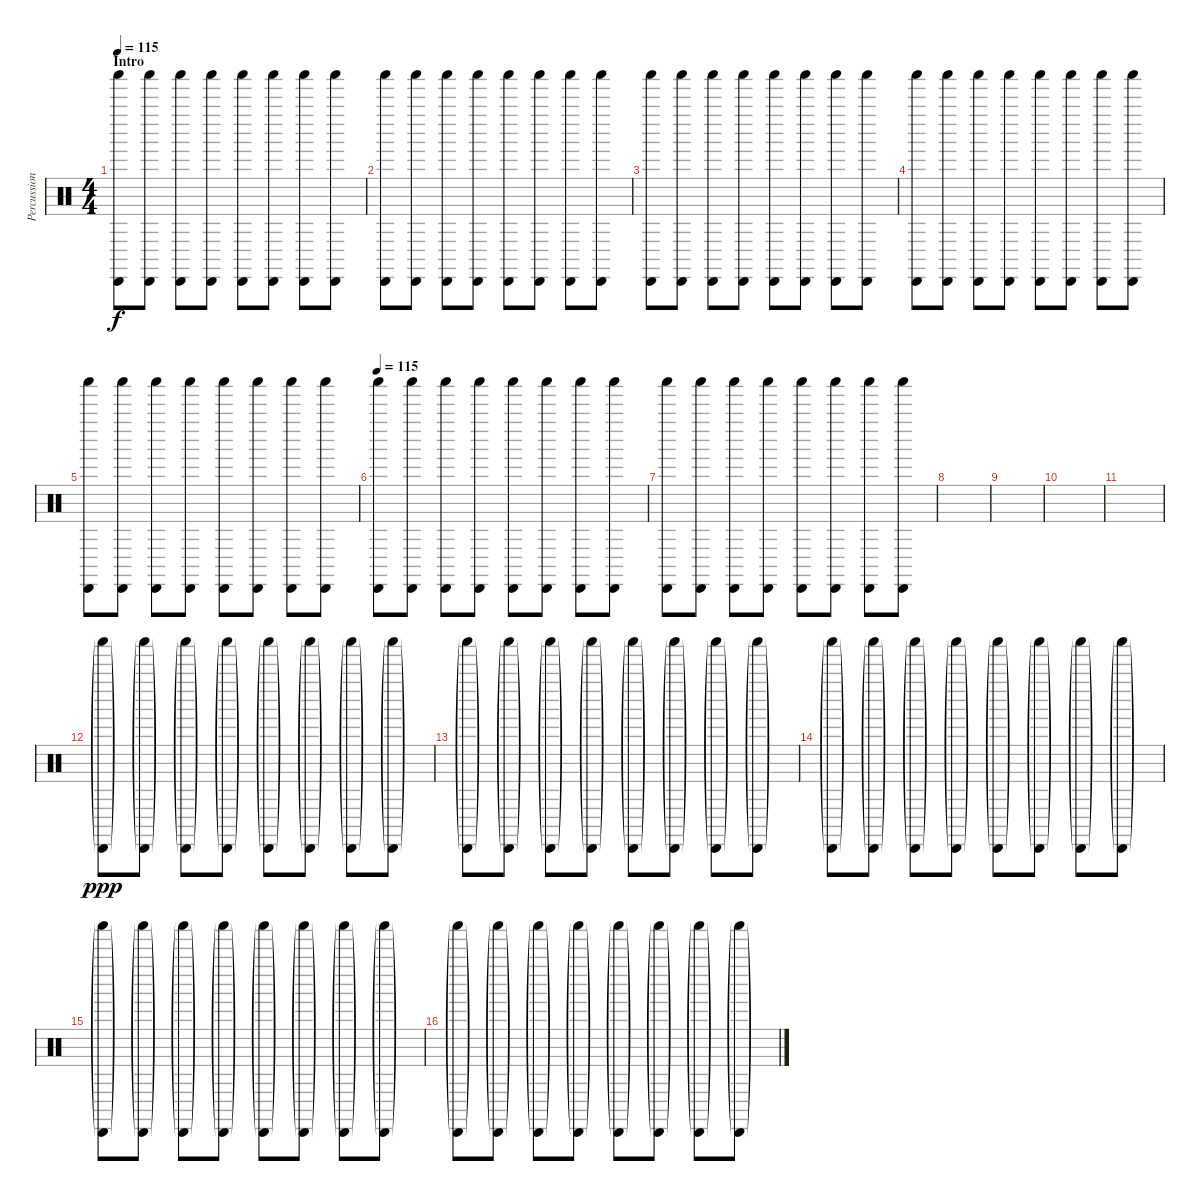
\track ("Percussion - Cabasa" "Percussion") {instrument percussion}
\staff {score}
\articulation defaults
\ts (4 4)
\section ("" "Intro")
\tempo 115
\tempo 109
\tempo 115
\clef neutral
\ks c
("Shaker (hit)" "Cabasa (hit)").8{dy f} ("Shaker (hit)" "Cabasa (hit)").8 ("Shaker (hit)" "Cabasa (hit)").8 ("Shaker (hit)" "Cabasa (hit)").8 ("Shaker (hit)" "Cabasa (hit)").8 ("Shaker (hit)" "Cabasa (hit)").8 ("Shaker (hit)" "Cabasa (hit)").8 ("Shaker (hit)" "Cabasa (hit)").8 |
("Shaker (hit)" "Cabasa (hit)").8 ("Shaker (hit)" "Cabasa (hit)").8 ("Shaker (hit)" "Cabasa (hit)").8 ("Shaker (hit)" "Cabasa (hit)").8 ("Shaker (hit)" "Cabasa (hit)").8 ("Shaker (hit)" "Cabasa (hit)").8 ("Shaker (hit)" "Cabasa (hit)").8 ("Shaker (hit)" "Cabasa (hit)").8 |
("Shaker (hit)" "Cabasa (hit)").8 ("Shaker (hit)" "Cabasa (hit)").8 ("Shaker (hit)" "Cabasa (hit)").8 ("Shaker (hit)" "Cabasa (hit)").8 ("Shaker (hit)" "Cabasa (hit)").8 ("Shaker (hit)" "Cabasa (hit)").8 ("Shaker (hit)" "Cabasa (hit)").8 ("Shaker (hit)" "Cabasa (hit)").8 |
("Shaker (hit)" "Cabasa (hit)").8 ("Shaker (hit)" "Cabasa (hit)").8 ("Shaker (hit)" "Cabasa (hit)").8 ("Shaker (hit)" "Cabasa (hit)").8 ("Shaker (hit)" "Cabasa (hit)").8 ("Shaker (hit)" "Cabasa (hit)").8 ("Shaker (hit)" "Cabasa (hit)").8 ("Shaker (hit)" "Cabasa (hit)").8 |
("Shaker (hit)" "Cabasa (hit)").8 ("Shaker (hit)" "Cabasa (hit)").8 ("Shaker (hit)" "Cabasa (hit)").8 ("Shaker (hit)" "Cabasa (hit)").8 ("Shaker (hit)" "Cabasa (hit)").8 ("Shaker (hit)" "Cabasa (hit)").8 ("Shaker (hit)" "Cabasa (hit)").8 ("Shaker (hit)" "Cabasa (hit)").8 |
\tempo 115
("Shaker (hit)" "Cabasa (hit)").8 ("Shaker (hit)" "Cabasa (hit)").8 ("Shaker (hit)" "Cabasa (hit)").8 ("Shaker (hit)" "Cabasa (hit)").8 ("Shaker (hit)" "Cabasa (hit)").8 ("Shaker (hit)" "Cabasa (hit)").8 ("Shaker (hit)" "Cabasa (hit)").8 ("Shaker (hit)" "Cabasa (hit)").8 |
("Shaker (hit)" "Cabasa (hit)").8{volume 0} ("Shaker (hit)" "Cabasa (hit)").8 ("Shaker (hit)" "Cabasa (hit)").8 ("Shaker (hit)" "Cabasa (hit)").8 ("Shaker (hit)" "Cabasa (hit)").8 ("Shaker (hit)" "Cabasa (hit)").8 ("Shaker (hit)" "Cabasa (hit)").8 ("Shaker (hit)" "Cabasa (hit)").8 |
|
|
|
|
("Shaker (hit)"{g} "Cabasa (hit)"{g}).8{dy ppp} ("Shaker (hit)"{g} "Cabasa (hit)"{g}).8 ("Shaker (hit)"{g} "Cabasa (hit)"{g}).8 ("Shaker (hit)"{g} "Cabasa (hit)"{g}).8 ("Shaker (hit)"{g} "Cabasa (hit)"{g}).8 ("Shaker (hit)"{g} "Cabasa (hit)"{g}).8 ("Shaker (hit)"{g} "Cabasa (hit)"{g}).8 ("Shaker (hit)"{g} "Cabasa (hit)"{g}).8 |
("Shaker (hit)"{g} "Cabasa (hit)"{g}).8 ("Shaker (hit)"{g} "Cabasa (hit)"{g}).8 ("Shaker (hit)"{g} "Cabasa (hit)"{g}).8 ("Shaker (hit)"{g} "Cabasa (hit)"{g}).8 ("Shaker (hit)"{g} "Cabasa (hit)"{g}).8 ("Shaker (hit)"{g} "Cabasa (hit)"{g}).8 ("Shaker (hit)"{g} "Cabasa (hit)"{g}).8 ("Shaker (hit)"{g} "Cabasa (hit)"{g}).8 |
("Shaker (hit)"{g} "Cabasa (hit)"{g}).8 ("Shaker (hit)"{g} "Cabasa (hit)"{g}).8 ("Shaker (hit)"{g} "Cabasa (hit)"{g}).8 ("Shaker (hit)"{g} "Cabasa (hit)"{g}).8 ("Shaker (hit)"{g} "Cabasa (hit)"{g}).8 ("Shaker (hit)"{g} "Cabasa (hit)"{g}).8 ("Shaker (hit)"{g} "Cabasa (hit)"{g}).8 ("Shaker (hit)"{g} "Cabasa (hit)"{g}).8 |
("Shaker (hit)"{g} "Cabasa (hit)"{g}).8 ("Shaker (hit)"{g} "Cabasa (hit)"{g}).8 ("Shaker (hit)"{g} "Cabasa (hit)"{g}).8 ("Shaker (hit)"{g} "Cabasa (hit)"{g}).8 ("Shaker (hit)"{g} "Cabasa (hit)"{g}).8 ("Shaker (hit)"{g} "Cabasa (hit)"{g}).8 ("Shaker (hit)"{g} "Cabasa (hit)"{g}).8 ("Shaker (hit)"{g} "Cabasa (hit)"{g}).8 |
("Shaker (hit)"{g} "Cabasa (hit)"{g}).8 ("Shaker (hit)"{g} "Cabasa (hit)"{g}).8 ("Shaker (hit)"{g} "Cabasa (hit)"{g}).8 ("Shaker (hit)"{g} "Cabasa (hit)"{g}).8 ("Shaker (hit)"{g} "Cabasa (hit)"{g}).8 ("Shaker (hit)"{g} "Cabasa (hit)"{g}).8 ("Shaker (hit)"{g} "Cabasa (hit)"{g}).8 ("Shaker (hit)"{g} "Cabasa (hit)"{g}).8
